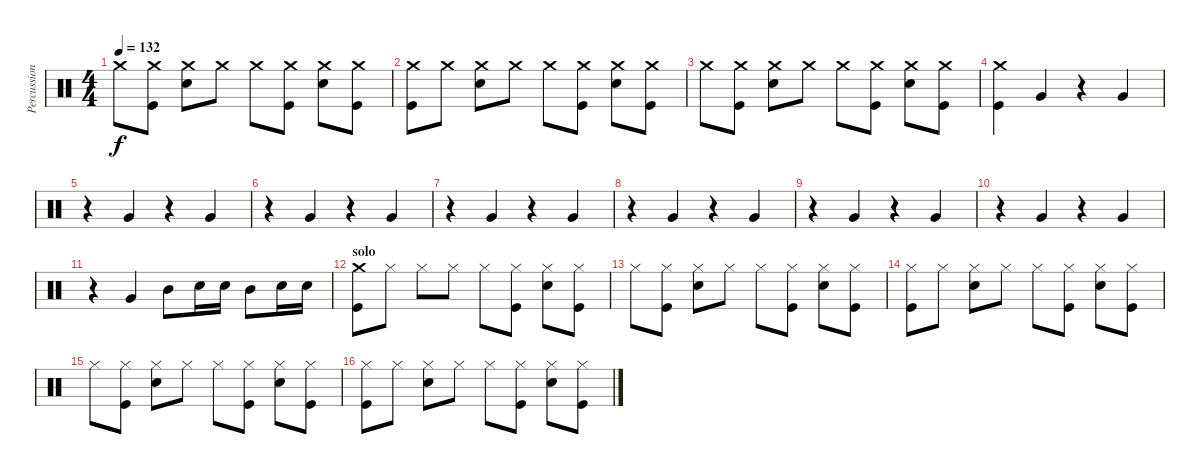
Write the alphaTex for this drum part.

\track ("Percussion" "Percussion") {instrument percussion}
\staff {score}
\articulation defaults
\ts (4 4)
\tempo 132
\clef neutral
\ks c "Crash medium (hit)".8{dy f}
("Crash medium (hit)" "Kick (hit)").8 ("Crash medium (hit)" "Snare (hit) 2").8 "Crash medium (hit)".8 "Crash medium (hit)".8 ("Crash medium (hit)" "Kick (hit)").8 ("Crash medium (hit)" "Snare (hit) 2").8 ("Crash medium (hit)" "Kick (hit)").8 |
("Crash medium (hit)" "Kick (hit)").8 "Crash medium (hit)".8 ("Crash medium (hit)" "Snare (hit) 2").8 "Crash medium (hit)".8 "Crash medium (hit)".8 ("Crash medium (hit)" "Kick (hit)").8 ("Crash medium (hit)" "Snare (hit) 2").8 ("Crash medium (hit)" "Kick (hit)").8 |
"Crash medium (hit)".8 ("Crash medium (hit)" "Kick (hit)").8 ("Crash medium (hit)" "Snare (hit) 2").8 "Crash medium (hit)".8 "Crash medium (hit)".8 ("Crash medium (hit)" "Kick (hit)").8 ("Crash medium (hit)" "Snare (hit) 2").8 ("Crash medium (hit)" "Kick (hit)").8 |
("Crash medium (hit)" "Kick (hit)").4 "Very Low Tom (hit)".4 r.4 "Very Low Tom (hit)".4 |
r.4 "Very Low Tom (hit)".4 r.4 "Very Low Tom (hit)".4 |
r.4 "Very Low Tom (hit)".4 r.4 "Very Low Tom (hit)".4 |
r.4 "Very Low Tom (hit)".4 r.4 "Very Low Tom (hit)".4 |
r.4 "Very Low Tom (hit)".4 r.4 "Very Low Tom (hit)".4 |
r.4 "Very Low Tom (hit)".4 r.4 "Very Low Tom (hit)".4 |
r.4 "Very Low Tom (hit)".4 r.4 "Very Low Tom (hit)".4 |
r.4 "Very Low Tom (hit)".4 "Mid Tom (hit)".8 "Snare (hit) 2".16 "Snare (hit) 2".16 "Mid Tom (hit)".8 "Snare (hit) 2".16 "Snare (hit) 2".16 |
\section ("" "solo")
("Crash medium (hit)" "Kick (hit)").8 "Hi-Hat (closed)".8 "Hi-Hat (closed)".8 "Hi-Hat (closed)".8 "Hi-Hat (closed)".8 ("Hi-Hat (closed)" "Kick (hit)").8 ("Hi-Hat (closed)" "Snare (hit) 2").8 ("Hi-Hat (closed)" "Kick (hit)").8 |
"Hi-Hat (closed)".8 ("Hi-Hat (closed)" "Kick (hit)").8 ("Hi-Hat (closed)" "Snare (hit) 2").8 "Hi-Hat (closed)".8 "Hi-Hat (closed)".8 ("Hi-Hat (closed)" "Kick (hit)").8 ("Hi-Hat (closed)" "Snare (hit) 2").8 ("Hi-Hat (closed)" "Kick (hit)").8 |
("Hi-Hat (closed)" "Kick (hit)").8 "Hi-Hat (closed)".8 ("Hi-Hat (closed)" "Snare (hit) 2").8 "Hi-Hat (closed)".8 "Hi-Hat (closed)".8 ("Hi-Hat (closed)" "Kick (hit)").8 ("Hi-Hat (closed)" "Snare (hit) 2").8 ("Hi-Hat (closed)" "Kick (hit)").8 |
"Hi-Hat (closed)".8 ("Hi-Hat (closed)" "Kick (hit)").8 ("Hi-Hat (closed)" "Snare (hit) 2").8 "Hi-Hat (closed)".8 "Hi-Hat (closed)".8 ("Hi-Hat (closed)" "Kick (hit)").8 ("Hi-Hat (closed)" "Snare (hit) 2").8 ("Hi-Hat (closed)" "Kick (hit)").8 |
("Hi-Hat (closed)" "Kick (hit)").8 "Hi-Hat (closed)".8 ("Hi-Hat (closed)" "Snare (hit) 2").8 "Hi-Hat (closed)".8 "Hi-Hat (closed)".8 ("Hi-Hat (closed)" "Kick (hit)").8 ("Hi-Hat (closed)" "Snare (hit) 2").8 ("Hi-Hat (closed)" "Kick (hit)").8
